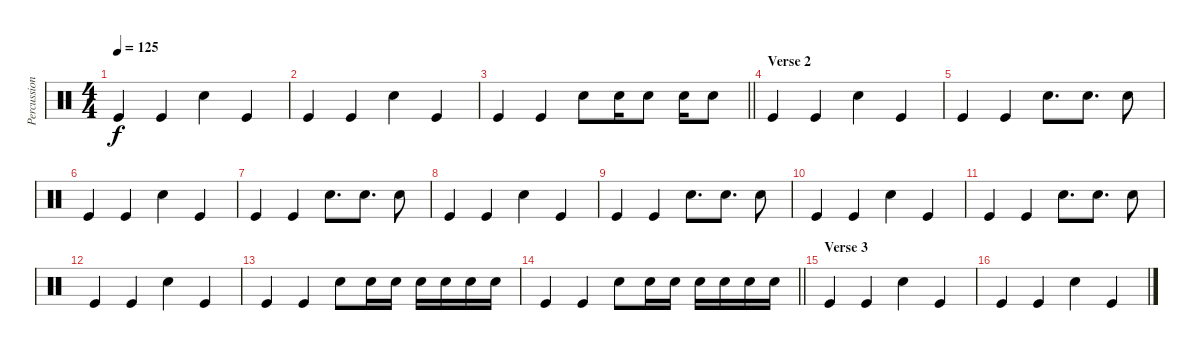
\track ("Percussion" "Percussion") {instrument percussion}
\staff {score}
\articulation defaults
\ts (4 4)
\tempo 125
\clef neutral
\ks c "Kick (hit)".4{dy f} "Kick (hit)".4 "Snare (hit) 2".4 "Kick (hit)".4
|
"Kick (hit)".4 "Kick (hit)".4 "Snare (hit) 2".4 "Kick (hit)".4 |
\barLineRight lightlight "Kick (hit)".4 "Kick (hit)".4 "Snare (hit) 2".8 "Snare (hit) 2".16 "Snare (hit) 2".8 "Snare (hit) 2".16 "Snare (hit) 2".8
|
\section ("" "Verse 2")
"Kick (hit)".4 "Kick (hit)".4 "Snare (hit) 2".4 "Kick (hit)".4 |
"Kick (hit)".4 "Kick (hit)".4 "Snare (hit) 2".8{d} "Snare (hit) 2".8{d} "Snare (hit) 2".8 |
"Kick (hit)".4 "Kick (hit)".4 "Snare (hit) 2".4 "Kick (hit)".4 |
"Kick (hit)".4 "Kick (hit)".4 "Snare (hit) 2".8{d} "Snare (hit) 2".8{d} "Snare (hit) 2".8 |
"Kick (hit)".4 "Kick (hit)".4 "Snare (hit) 2".4 "Kick (hit)".4 |
"Kick (hit)".4 "Kick (hit)".4 "Snare (hit) 2".8{d} "Snare (hit) 2".8{d} "Snare (hit) 2".8 |
"Kick (hit)".4 "Kick (hit)".4 "Snare (hit) 2".4 "Kick (hit)".4 |
"Kick (hit)".4 "Kick (hit)".4 "Snare (hit) 2".8{d} "Snare (hit) 2".8{d} "Snare (hit) 2".8 |
"Kick (hit)".4 "Kick (hit)".4 "Snare (hit) 2".4 "Kick (hit)".4 |
"Kick (hit)".4 "Kick (hit)".4 "Snare (hit) 2".8 "Snare (hit) 2".16 "Snare (hit) 2".16 "Snare (hit) 2".16 "Snare (hit) 2".16 "Snare (hit) 2".16 "Snare (hit) 2".16 |
\barLineRight lightlight "Kick (hit)".4 "Kick (hit)".4 "Snare (hit) 2".8 "Snare (hit) 2".16 "Snare (hit) 2".16 "Snare (hit) 2".16 "Snare (hit) 2".16 "Snare (hit) 2".16 "Snare (hit) 2".16
|
\section ("" "Verse 3")
"Kick (hit)".4 "Kick (hit)".4 "Snare (hit) 2".4 "Kick (hit)".4 |
"Kick (hit)".4 "Kick (hit)".4 "Snare (hit) 2".4 "Kick (hit)".4
